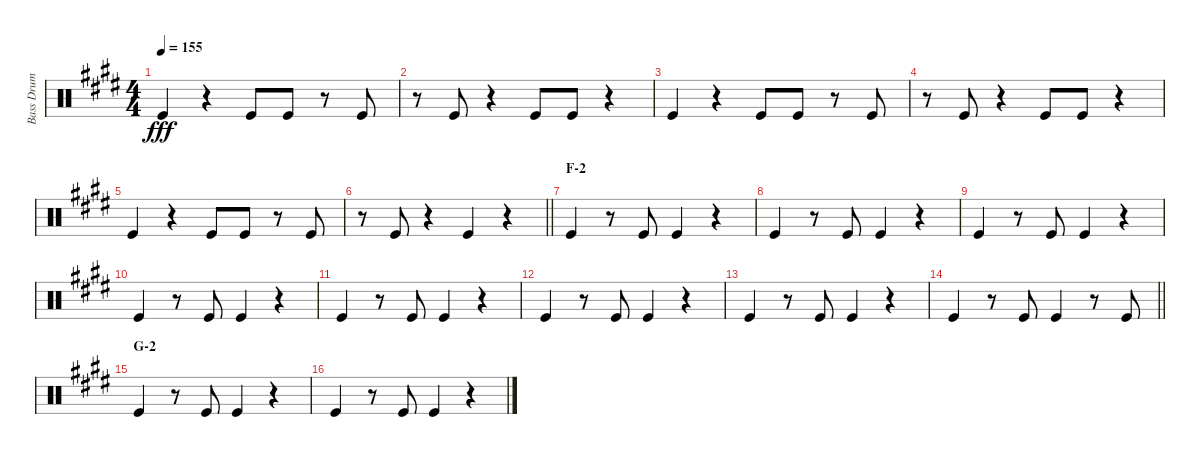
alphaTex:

\track ("Bass Drum" "Bass Drum") {instrument percussion}
\staff {score}
\articulation defaults
\ts (4 4)
\tempo 155
\clef neutral
\ks e "Kick (hit)".4{dy fff}
r.4 "Kick (hit)".8 "Kick (hit)".8 r.8 "Kick (hit)".8 |
r.8 "Kick (hit)".8 r.4 "Kick (hit)".8 "Kick (hit)".8 r.4 |
"Kick (hit)".4 r.4 "Kick (hit)".8 "Kick (hit)".8 r.8 "Kick (hit)".8 |
r.8 "Kick (hit)".8 r.4 "Kick (hit)".8 "Kick (hit)".8 r.4 |
"Kick (hit)".4 r.4 "Kick (hit)".8 "Kick (hit)".8 r.8 "Kick (hit)".8 |
\barLineRight lightlight
r.8 "Kick (hit)".8 r.4 "Kick (hit)".4 r.4 |
\section ("" "F-2")
"Kick (hit)".4 r.8 "Kick (hit)".8 "Kick (hit)".4 r.4 |
"Kick (hit)".4 r.8 "Kick (hit)".8 "Kick (hit)".4 r.4 |
"Kick (hit)".4 r.8 "Kick (hit)".8 "Kick (hit)".4 r.4 |
"Kick (hit)".4 r.8 "Kick (hit)".8 "Kick (hit)".4 r.4 |
"Kick (hit)".4 r.8 "Kick (hit)".8 "Kick (hit)".4 r.4 |
"Kick (hit)".4 r.8 "Kick (hit)".8 "Kick (hit)".4 r.4 |
"Kick (hit)".4 r.8 "Kick (hit)".8 "Kick (hit)".4 r.4 |
\barLineRight lightlight "Kick (hit)".4
r.8 "Kick (hit)".8 "Kick (hit)".4 r.8 "Kick (hit)".8 |
\section ("" "G-2")
"Kick (hit)".4 r.8 "Kick (hit)".8 "Kick (hit)".4 r.4 |
"Kick (hit)".4 r.8 "Kick (hit)".8 "Kick (hit)".4 r.4
